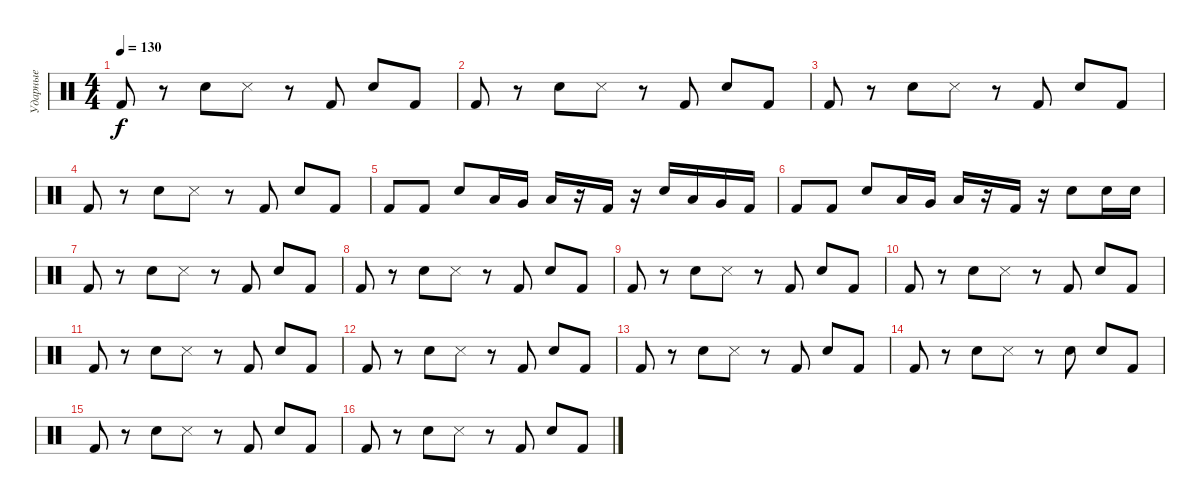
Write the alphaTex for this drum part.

\track ("Ударные" "Ударные") {instrument percussion}
\staff {score}
\articulation defaults
\ts (4 4)
\tempo 130
\clef neutral
\ks c "Kick (hit) 2".8{dy f}
r.8 "Electric Snare (hit)".8 "Snare (side stick) 3".8 r.8 "Kick (hit) 2".8 "Electric Snare (hit)".8 "Kick (hit) 2".8 |
"Kick (hit) 2".8 r.8 "Electric Snare (hit)".8 "Snare (side stick) 3".8 r.8 "Kick (hit) 2".8 "Electric Snare (hit)".8 "Kick (hit) 2".8 |
"Kick (hit) 2".8 r.8 "Electric Snare (hit)".8 "Snare (side stick) 3".8 r.8 "Kick (hit) 2".8 "Electric Snare (hit)".8 "Kick (hit) 2".8 |
"Kick (hit) 2".8 r.8 "Electric Snare (hit)".8 "Snare (side stick) 3".8 r.8 "Kick (hit) 2".8 "Electric Snare (hit)".8 "Kick (hit) 2".8 |
"Kick (hit) 2".8 "Kick (hit) 2".8 "Electric Snare (hit)".8 "Low Tom (hit)".16 "Very Low Tom (hit)".16 "Low Floor Tom (hit)".16 r.16 "Kick (hit) 2".16 r.16 "Electric Snare (hit)".16 "Low Tom (hit)".16 "Very Low Tom (hit)".16 "Kick (hit) 2".16 |
"Kick (hit) 2".8 "Kick (hit) 2".8 "Electric Snare (hit)".8 "Low Tom (hit)".16 "Very Low Tom (hit)".16 "Low Floor Tom (hit)".16 r.16 "Kick (hit) 2".16 r.16 "Electric Snare (hit)".8 "Electric Snare (hit)".16 "Electric Snare (hit)".16 |
"Kick (hit) 2".8 r.8 "Electric Snare (hit)".8 "Snare (side stick) 3".8 r.8 "Kick (hit) 2".8 "Electric Snare (hit)".8 "Kick (hit) 2".8 |
"Kick (hit) 2".8 r.8 "Electric Snare (hit)".8 "Snare (side stick) 3".8 r.8 "Kick (hit) 2".8 "Electric Snare (hit)".8 "Kick (hit) 2".8 |
"Kick (hit) 2".8 r.8 "Electric Snare (hit)".8 "Snare (side stick) 3".8 r.8 "Kick (hit) 2".8 "Electric Snare (hit)".8 "Kick (hit) 2".8 |
"Kick (hit) 2".8 r.8 "Electric Snare (hit)".8 "Snare (side stick) 3".8 r.8 "Kick (hit) 2".8 "Electric Snare (hit)".8 "Kick (hit) 2".8 |
"Kick (hit) 2".8 r.8 "Electric Snare (hit)".8 "Snare (side stick) 3".8 r.8 "Kick (hit) 2".8 "Electric Snare (hit)".8 "Kick (hit) 2".8 |
"Kick (hit) 2".8 r.8 "Electric Snare (hit)".8 "Snare (side stick) 3".8 r.8 "Kick (hit) 2".8 "Electric Snare (hit)".8 "Kick (hit) 2".8 |
"Kick (hit) 2".8 r.8 "Electric Snare (hit)".8 "Snare (side stick) 3".8 r.8 "Kick (hit) 2".8 "Electric Snare (hit)".8 "Kick (hit) 2".8 |
"Kick (hit) 2".8 r.8 "Electric Snare (hit)".8 "Snare (side stick) 3".8 r.8 "Electric Snare (hit)".8 "Electric Snare (hit)".8 "Kick (hit) 2".8 |
"Kick (hit) 2".8 r.8 "Electric Snare (hit)".8 "Snare (side stick) 3".8 r.8 "Kick (hit) 2".8 "Electric Snare (hit)".8 "Kick (hit) 2".8 |
"Kick (hit) 2".8 r.8 "Electric Snare (hit)".8 "Snare (side stick) 3".8 r.8 "Kick (hit) 2".8 "Electric Snare (hit)".8 "Kick (hit) 2".8
